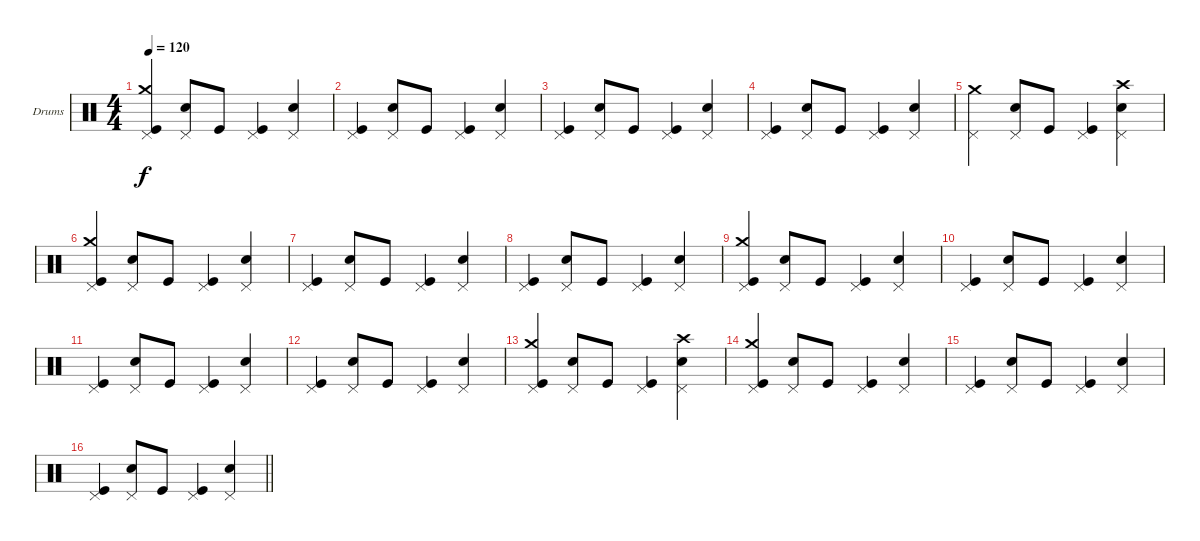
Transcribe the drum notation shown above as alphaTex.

\bracketExtendMode groupsimilarinstruments
\firstSystemTrackNameOrientation horizontal
\otherSystemsTrackNameOrientation horizontal
\track ("Drumkit" "Drums") {instrument percussion}
\staff {score}
\articulation defaults
\ts (4 4)
\tempo 120
\clef neutral
\ks c
("Kick (hit)" "Crash medium (hit)" "Pedal Hi-Hat (hit)").4{dy f} ("Snare (hit) 2" "Pedal Hi-Hat (hit)").8 "Kick (hit)".8 ("Kick (hit)" "Pedal Hi-Hat (hit)").4 ("Snare (hit) 2" "Pedal Hi-Hat (hit)").4 |
("Kick (hit)" "Pedal Hi-Hat (hit)").4 ("Snare (hit) 2" "Pedal Hi-Hat (hit)").8 "Kick (hit)".8 ("Kick (hit)" "Pedal Hi-Hat (hit)").4 ("Snare (hit) 2" "Pedal Hi-Hat (hit)").4 |
("Kick (hit)" "Pedal Hi-Hat (hit)").4 ("Snare (hit) 2" "Pedal Hi-Hat (hit)").8 "Kick (hit)".8 ("Kick (hit)" "Pedal Hi-Hat (hit)").4 ("Snare (hit) 2" "Pedal Hi-Hat (hit)").4 |
("Kick (hit)" "Pedal Hi-Hat (hit)").4 ("Snare (hit) 2" "Pedal Hi-Hat (hit)").8 "Kick (hit)".8 ("Kick (hit)" "Pedal Hi-Hat (hit)").4 ("Snare (hit) 2" "Pedal Hi-Hat (hit)").4 |
("Crash medium (hit)" "Pedal Hi-Hat (hit)").4 ("Snare (hit) 2" "Pedal Hi-Hat (hit)").8 "Kick (hit)".8 ("Kick (hit)" "Pedal Hi-Hat (hit)").4 ("Snare (hit) 2" "Crash high (hit)" "Pedal Hi-Hat (hit)").4 |
("Kick (hit)" "Crash medium (hit)" "Pedal Hi-Hat (hit)").4 ("Snare (hit) 2" "Pedal Hi-Hat (hit)").8 "Kick (hit)".8 ("Kick (hit)" "Pedal Hi-Hat (hit)").4 ("Snare (hit) 2" "Pedal Hi-Hat (hit)").4 |
("Kick (hit)" "Pedal Hi-Hat (hit)").4 ("Snare (hit) 2" "Pedal Hi-Hat (hit)").8 "Kick (hit)".8 ("Kick (hit)" "Pedal Hi-Hat (hit)").4 ("Snare (hit) 2" "Pedal Hi-Hat (hit)").4 |
("Kick (hit)" "Pedal Hi-Hat (hit)").4 ("Snare (hit) 2" "Pedal Hi-Hat (hit)").8 "Kick (hit)".8 ("Kick (hit)" "Pedal Hi-Hat (hit)").4 ("Snare (hit) 2" "Pedal Hi-Hat (hit)").4 |
("Kick (hit)" "Crash medium (hit)" "Pedal Hi-Hat (hit)").4 ("Snare (hit) 2" "Pedal Hi-Hat (hit)").8 "Kick (hit)".8 ("Kick (hit)" "Pedal Hi-Hat (hit)").4 ("Snare (hit) 2" "Pedal Hi-Hat (hit)").4 |
("Kick (hit)" "Pedal Hi-Hat (hit)").4 ("Snare (hit) 2" "Pedal Hi-Hat (hit)").8 "Kick (hit)".8 ("Kick (hit)" "Pedal Hi-Hat (hit)").4 ("Snare (hit) 2" "Pedal Hi-Hat (hit)").4 |
("Kick (hit)" "Pedal Hi-Hat (hit)").4 ("Snare (hit) 2" "Pedal Hi-Hat (hit)").8 "Kick (hit)".8 ("Kick (hit)" "Pedal Hi-Hat (hit)").4 ("Snare (hit) 2" "Pedal Hi-Hat (hit)").4 |
("Kick (hit)" "Pedal Hi-Hat (hit)").4 ("Snare (hit) 2" "Pedal Hi-Hat (hit)").8 "Kick (hit)".8 ("Kick (hit)" "Pedal Hi-Hat (hit)").4 ("Snare (hit) 2" "Pedal Hi-Hat (hit)").4 |
("Kick (hit)" "Crash medium (hit)" "Pedal Hi-Hat (hit)").4 ("Snare (hit) 2" "Pedal Hi-Hat (hit)").8 "Kick (hit)".8 ("Kick (hit)" "Pedal Hi-Hat (hit)").4 ("Snare (hit) 2" "Crash high (hit)" "Pedal Hi-Hat (hit)").4 |
("Kick (hit)" "Crash medium (hit)" "Pedal Hi-Hat (hit)").4 ("Snare (hit) 2" "Pedal Hi-Hat (hit)").8 "Kick (hit)".8 ("Kick (hit)" "Pedal Hi-Hat (hit)").4 ("Snare (hit) 2" "Pedal Hi-Hat (hit)").4 |
("Kick (hit)" "Pedal Hi-Hat (hit)").4 ("Snare (hit) 2" "Pedal Hi-Hat (hit)").8 "Kick (hit)".8 ("Kick (hit)" "Pedal Hi-Hat (hit)").4 ("Snare (hit) 2" "Pedal Hi-Hat (hit)").4 |
\barLineRight lightlight
("Kick (hit)" "Pedal Hi-Hat (hit)").4 ("Snare (hit) 2" "Pedal Hi-Hat (hit)").8 "Kick (hit)".8 ("Kick (hit)" "Pedal Hi-Hat (hit)").4 ("Snare (hit) 2" "Pedal Hi-Hat (hit)").4
